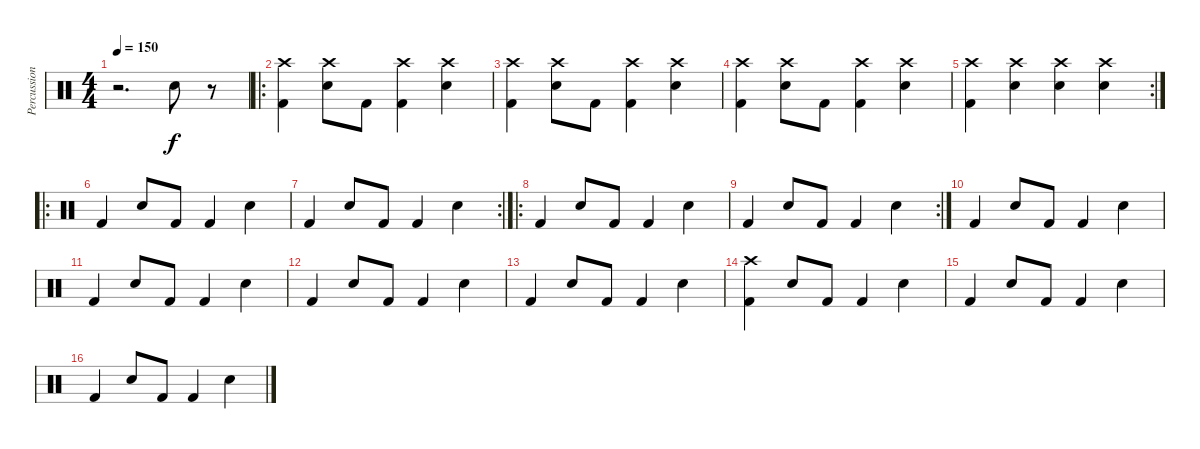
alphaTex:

\track ("Percussions" "Percussion") {instrument percussion}
\staff {score}
\articulation defaults
\ts (4 4)
\tempo 150
\clef neutral
\ks c
r.2{d dy f} "Snare (hit) 2".8 r.8 |
\ro
("Kick (hit) 2" "Crash high (hit)").4 ("Snare (hit) 2" "Crash high (hit)").8 "Kick (hit) 2".8 ("Kick (hit) 2" "Crash high (hit)").4 ("Snare (hit) 2" "Crash high (hit)").4 |
("Kick (hit) 2" "Crash high (hit)").4 ("Snare (hit) 2" "Crash high (hit)").8 "Kick (hit) 2".8 ("Kick (hit) 2" "Crash high (hit)").4 ("Snare (hit) 2" "Crash high (hit)").4 |
("Kick (hit) 2" "Crash high (hit)").4 ("Snare (hit) 2" "Crash high (hit)").8 "Kick (hit) 2".8 ("Kick (hit) 2" "Crash high (hit)").4 ("Snare (hit) 2" "Crash high (hit)").4 |
\rc 2
("Kick (hit) 2" "Crash high (hit)").4 ("Snare (hit) 2" "Crash high (hit)").4 ("Snare (hit) 2" "Crash high (hit)").4 ("Snare (hit) 2" "Crash high (hit)").4 |
\ro "Kick (hit) 2".4 "Snare (hit) 2".8 "Kick (hit) 2".8 "Kick (hit) 2".4 "Snare (hit) 2".4
|
\rc 2 "Kick (hit) 2".4 "Snare (hit) 2".8 "Kick (hit) 2".8 "Kick (hit) 2".4 "Snare (hit) 2".4
|
\ro "Kick (hit) 2".4 "Snare (hit) 2".8 "Kick (hit) 2".8 "Kick (hit) 2".4 "Snare (hit) 2".4
|
\rc 2 "Kick (hit) 2".4 "Snare (hit) 2".8 "Kick (hit) 2".8 "Kick (hit) 2".4 "Snare (hit) 2".4
|
"Kick (hit) 2".4 "Snare (hit) 2".8 "Kick (hit) 2".8 "Kick (hit) 2".4 "Snare (hit) 2".4 |
"Kick (hit) 2".4 "Snare (hit) 2".8 "Kick (hit) 2".8 "Kick (hit) 2".4 "Snare (hit) 2".4 |
"Kick (hit) 2".4 "Snare (hit) 2".8 "Kick (hit) 2".8 "Kick (hit) 2".4 "Snare (hit) 2".4 |
"Kick (hit) 2".4 "Snare (hit) 2".8 "Kick (hit) 2".8 "Kick (hit) 2".4 "Snare (hit) 2".4 |
("Kick (hit) 2" "Crash high (hit)").4 "Snare (hit) 2".8 "Kick (hit) 2".8 "Kick (hit) 2".4 "Snare (hit) 2".4 |
"Kick (hit) 2".4 "Snare (hit) 2".8 "Kick (hit) 2".8 "Kick (hit) 2".4 "Snare (hit) 2".4 |
"Kick (hit) 2".4 "Snare (hit) 2".8 "Kick (hit) 2".8 "Kick (hit) 2".4 "Snare (hit) 2".4
